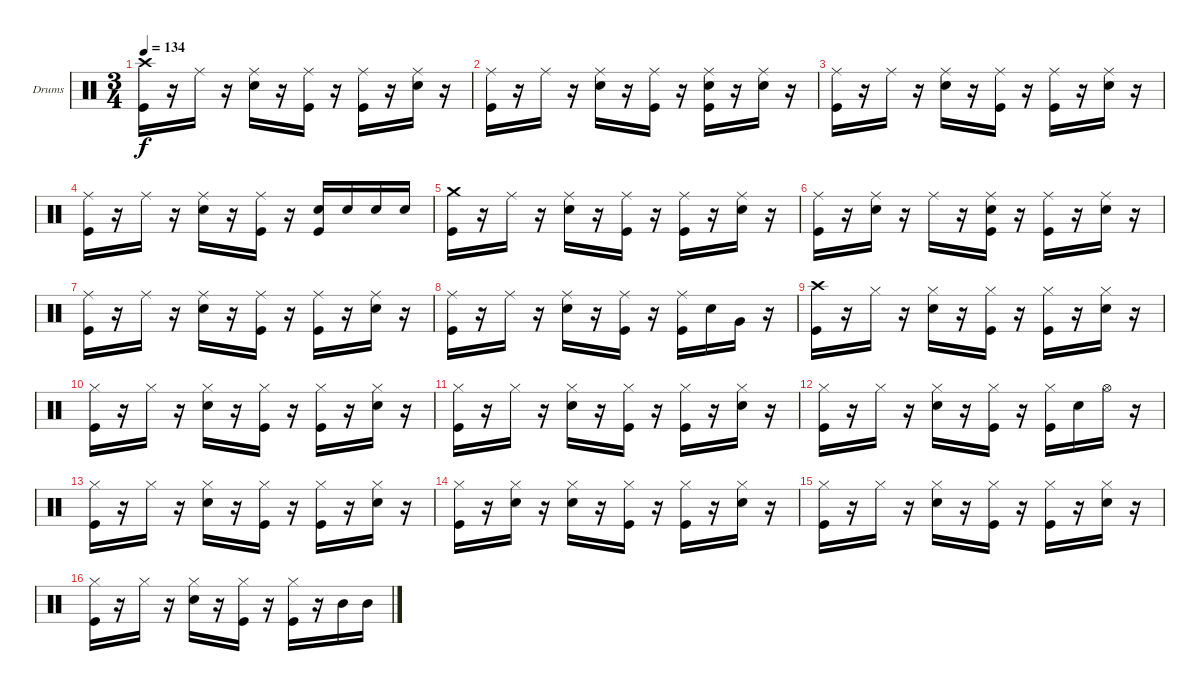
\bracketExtendMode groupsimilarinstruments
\firstSystemTrackNameOrientation horizontal
\otherSystemsTrackNameOrientation horizontal
\track ("Drumkit" "Drums") {instrument percussion}
\staff {score}
\articulation defaults
\ts (3 4)
\tempo 134
\clef neutral
\ks c
("Kick (hit)" "Crash high (hit)").16{dy f} r.16 "Ride (middle)".16 r.16 ("Ride (middle)" "Snare (hit) 2").16 r.16 ("Kick (hit)" "Ride (middle)").16 r.16 ("Ride (middle)" "Kick (hit)").16 r.16 ("Ride (middle)" "Snare (hit) 2").16 r.16 |
("Ride (middle)" "Kick (hit)").16 r.16 "Ride (middle)".16 r.16 ("Ride (middle)" "Snare (hit) 2").16 r.16 ("Kick (hit)" "Ride (middle)").16 r.16 ("Ride (middle)" "Snare (hit) 2" "Kick (hit)").16 r.16 ("Snare (hit) 2" "Ride (middle)").16 r.16 |
("Kick (hit)" "Ride (middle)").16 r.16 "Ride (middle)".16 r.16 ("Snare (hit) 2" "Ride (middle)").16 r.16 ("Kick (hit)" "Ride (middle)").16 r.16 ("Ride (middle)" "Kick (hit)").16 r.16 ("Snare (hit) 2" "Ride (middle)").16 r.16 |
("Ride (middle)" "Kick (hit)").16 r.16 "Ride (middle)".16 r.16 ("Snare (hit) 2" "Ride (middle)").16 r.16 ("Kick (hit)" "Ride (middle)").16 r.16 ("Snare (hit) 2" "Kick (hit)").16 "Snare (hit) 2".16 "Snare (hit) 2".16 "Snare (hit) 2".16 |
("Crash medium (hit)" "Kick (hit)").16 r.16 "Ride (middle)".16 r.16 ("Ride (middle)" "Snare (hit) 2").16 r.16 ("Ride (middle)" "Kick (hit)").16 r.16 ("Ride (middle)" "Kick (hit)").16 r.16 ("Snare (hit) 2" "Ride (middle)").16 r.16 |
("Kick (hit)" "Ride (middle)").16 r.16 ("Snare (hit) 2" "Ride (middle)").16 r.16 "Ride (middle)".16 r.16 ("Snare (hit) 2" "Kick (hit)" "Ride (middle)").16 r.16 ("Kick (hit)" "Ride (middle)").16 r.16 ("Snare (hit) 2" "Ride (middle)").16 r.16 |
("Kick (hit)" "Ride (middle)").16 r.16 "Ride (middle)".16 r.16 ("Snare (hit) 2" "Ride (middle)").16 r.16 ("Ride (middle)" "Kick (hit)").16 r.16 ("Kick (hit)" "Ride (middle)").16 r.16 ("Snare (hit) 2" "Ride (middle)").16 r.16 |
("Kick (hit)" "Ride (middle)").16 r.16 "Ride (middle)".16 r.16 ("Snare (hit) 2" "Ride (middle)").16 r.16 ("Ride (middle)" "Kick (hit)").16 r.16 ("Kick (hit)" "Ride (middle)").16 "Snare (hit) 2".16 "Very Low Tom (hit)".16 r.16 |
("Kick (hit)" "Crash high (hit)").16 r.16 "Hi-Hat (closed)".16 r.16 ("Hi-Hat (closed)" "Snare (hit) 2").16 r.16 ("Hi-Hat (closed)" "Kick (hit)").16 r.16 ("Hi-Hat (closed)" "Kick (hit)").16 r.16 ("Hi-Hat (closed)" "Snare (hit) 2").16 r.16 |
("Hi-Hat (closed)" "Kick (hit)").16 r.16 "Hi-Hat (closed)".16 r.16 ("Snare (hit) 2" "Hi-Hat (closed)").16 r.16 ("Hi-Hat (closed)" "Kick (hit)").16 r.16 ("Hi-Hat (closed)" "Kick (hit)").16 r.16 ("Hi-Hat (closed)" "Snare (hit) 2").16 r.16 |
("Kick (hit)" "Hi-Hat (closed)").16 r.16 "Hi-Hat (closed)".16 r.16 ("Snare (hit) 2" "Hi-Hat (closed)").16 r.16 ("Hi-Hat (closed)" "Kick (hit)").16 r.16 ("Kick (hit)" "Hi-Hat (closed)").16 r.16 ("Hi-Hat (closed)" "Snare (hit) 2").16 r.16 |
("Hi-Hat (closed)" "Kick (hit)").16 r.16 "Hi-Hat (closed)".16 r.16 ("Snare (hit) 2" "Hi-Hat (closed)").16 r.16 ("Hi-Hat (closed)" "Kick (hit)").16 r.16 ("Hi-Hat (closed)" "Kick (hit)").16 "Snare (hit) 2".16 "Hi-Hat (open)".16 r.16 |
("Kick (hit)" "Hi-Hat (closed)").16 r.16 "Hi-Hat (closed)".16 r.16 ("Snare (hit) 2" "Hi-Hat (closed)").16 r.16 ("Hi-Hat (closed)" "Kick (hit)").16 r.16 ("Kick (hit)" "Hi-Hat (closed)").16 r.16 ("Hi-Hat (closed)" "Snare (hit) 2").16 r.16 |
("Hi-Hat (closed)" "Kick (hit)").16 r.16 ("Snare (hit) 2" "Hi-Hat (closed)").16 r.16 ("Snare (hit) 2" "Hi-Hat (closed)").16 r.16 ("Kick (hit)" "Hi-Hat (closed)").16 r.16 ("Hi-Hat (closed)" "Kick (hit)").16 r.16 ("Hi-Hat (closed)" "Snare (hit) 2").16 r.16 |
("Kick (hit)" "Hi-Hat (closed)").16 r.16 "Hi-Hat (closed)".16 r.16 ("Snare (hit) 2" "Hi-Hat (closed)").16 r.16 ("Hi-Hat (closed)" "Kick (hit)").16 r.16 ("Kick (hit)" "Hi-Hat (closed)").16 r.16 ("Hi-Hat (closed)" "Snare (hit) 2").16 r.16 |
("Hi-Hat (closed)" "Kick (hit)").16 r.16 "Hi-Hat (closed)".16 r.16 ("Snare (hit) 2" "Hi-Hat (closed)").16 r.16 ("Hi-Hat (closed)" "Kick (hit)").16 r.16 ("Hi-Hat (closed)" "Kick (hit)").16 r.16 "Mid Tom (hit)".16 "Mid Tom (hit)".16
